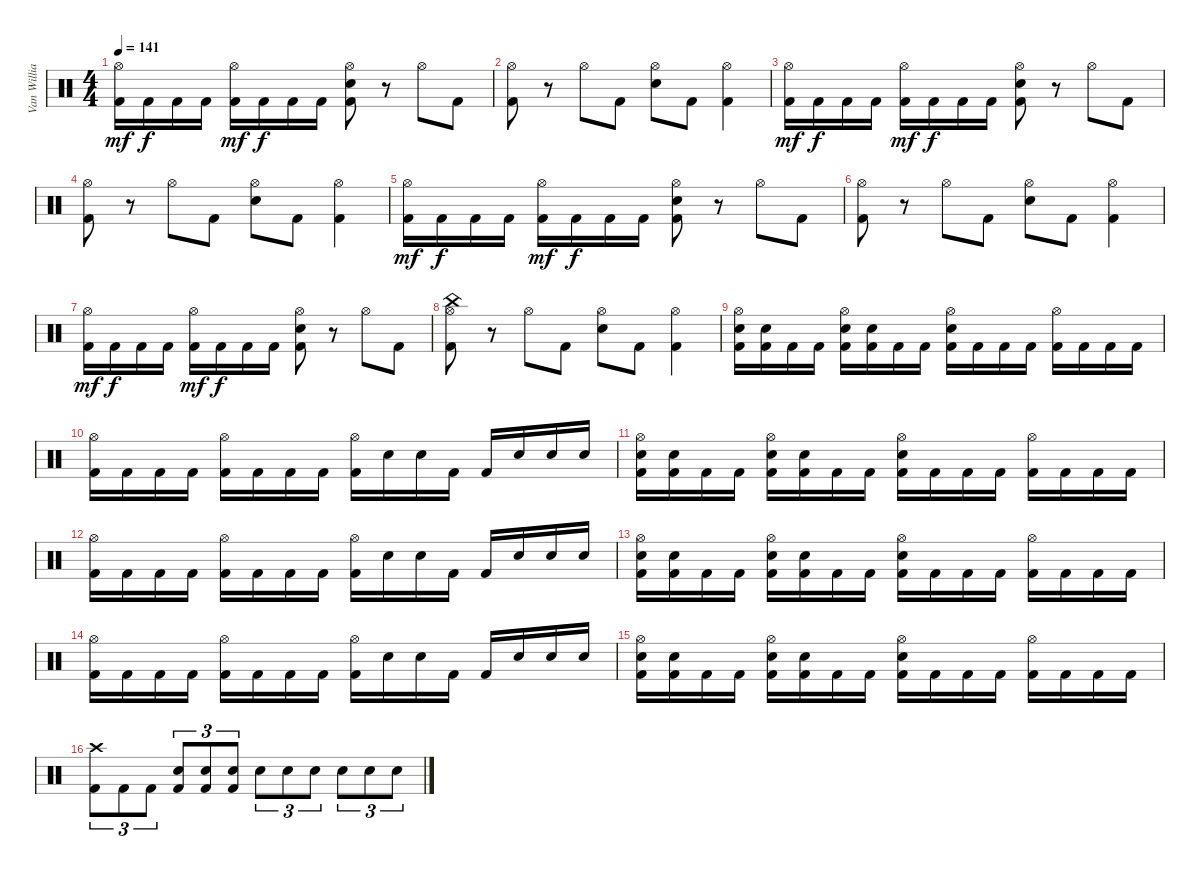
\track ("Van Williams" "Van Willia") {instrument percussion}
\staff {score}
\articulation defaults
\ts (4 4)
\tempo 141
\clef neutral
\ks c
("Hi-Hat (open)" "Kick (hit) 2").16{dy mf} "Kick (hit) 2".16{dy f} "Kick (hit) 2".16 "Kick (hit) 2".16 ("Hi-Hat (open)" "Kick (hit) 2").16{dy mf} "Kick (hit) 2".16{dy f} "Kick (hit) 2".16 "Kick (hit) 2".16 ("Hi-Hat (open)" "Electric Snare (hit)" "Kick (hit) 2").8 r.8 "Hi-Hat (open)".8 "Kick (hit) 2".8 |
("Hi-Hat (open)" "Kick (hit) 2").8 r.8 "Hi-Hat (open)".8 "Kick (hit) 2".8 ("Hi-Hat (open)" "Electric Snare (hit)").8 "Kick (hit) 2".8 ("Hi-Hat (open)" "Kick (hit) 2").4 |
("Hi-Hat (open)" "Kick (hit) 2").16{dy mf} "Kick (hit) 2".16{dy f} "Kick (hit) 2".16 "Kick (hit) 2".16 ("Hi-Hat (open)" "Kick (hit) 2").16{dy mf} "Kick (hit) 2".16{dy f} "Kick (hit) 2".16 "Kick (hit) 2".16 ("Hi-Hat (open)" "Electric Snare (hit)" "Kick (hit) 2").8 r.8 "Hi-Hat (open)".8 "Kick (hit) 2".8 |
("Hi-Hat (open)" "Kick (hit) 2").8 r.8 "Hi-Hat (open)".8 "Kick (hit) 2".8 ("Hi-Hat (open)" "Electric Snare (hit)").8 "Kick (hit) 2".8 ("Hi-Hat (open)" "Kick (hit) 2").4 |
("Hi-Hat (open)" "Kick (hit) 2").16{dy mf} "Kick (hit) 2".16{dy f} "Kick (hit) 2".16 "Kick (hit) 2".16 ("Hi-Hat (open)" "Kick (hit) 2").16{dy mf} "Kick (hit) 2".16{dy f} "Kick (hit) 2".16 "Kick (hit) 2".16 ("Hi-Hat (open)" "Electric Snare (hit)" "Kick (hit) 2").8 r.8 "Hi-Hat (open)".8 "Kick (hit) 2".8 |
("Hi-Hat (open)" "Kick (hit) 2").8 r.8 "Hi-Hat (open)".8 "Kick (hit) 2".8 ("Hi-Hat (open)" "Electric Snare (hit)").8 "Kick (hit) 2".8 ("Hi-Hat (open)" "Kick (hit) 2").4 |
("Hi-Hat (open)" "Kick (hit) 2").16{dy mf} "Kick (hit) 2".16{dy f} "Kick (hit) 2".16 "Kick (hit) 2".16 ("Hi-Hat (open)" "Kick (hit) 2").16{dy mf} "Kick (hit) 2".16{dy f} "Kick (hit) 2".16 "Kick (hit) 2".16 ("Hi-Hat (open)" "Electric Snare (hit)" "Kick (hit) 2").8 r.8 "Hi-Hat (open)".8 "Kick (hit) 2".8 |
("Hi-Hat (open)" "China (hit)" "Kick (hit) 2").8 r.8 "Hi-Hat (open)".8 "Kick (hit) 2".8 ("Hi-Hat (open)" "Electric Snare (hit)").8 "Kick (hit) 2".8 ("Hi-Hat (open)" "Kick (hit) 2").4 |
("Hi-Hat (open)" "Electric Snare (hit)" "Kick (hit) 2").16 ("Electric Snare (hit)" "Kick (hit) 2").16 "Kick (hit) 2".16 "Kick (hit) 2".16 ("Hi-Hat (open)" "Electric Snare (hit)" "Kick (hit) 2").16 ("Electric Snare (hit)" "Kick (hit) 2").16 "Kick (hit) 2".16 "Kick (hit) 2".16 ("Hi-Hat (open)" "Electric Snare (hit)" "Kick (hit) 2").16 "Kick (hit) 2".16 "Kick (hit) 2".16 "Kick (hit) 2".16 ("Hi-Hat (open)" "Kick (hit) 2").16 "Kick (hit) 2".16 "Kick (hit) 2".16 "Kick (hit) 2".16 |
("Hi-Hat (open)" "Kick (hit) 2").16 "Kick (hit) 2".16 "Kick (hit) 2".16 "Kick (hit) 2".16 ("Hi-Hat (open)" "Kick (hit) 2").16 "Kick (hit) 2".16 "Kick (hit) 2".16 "Kick (hit) 2".16 ("Hi-Hat (open)" "Kick (hit) 2").16 "Electric Snare (hit)".16 "Electric Snare (hit)".16 "Kick (hit) 2".16 "Kick (hit) 2".16 "Electric Snare (hit)".16 "Electric Snare (hit)".16 "Electric Snare (hit)".16 |
("Hi-Hat (open)" "Electric Snare (hit)" "Kick (hit) 2").16 ("Electric Snare (hit)" "Kick (hit) 2").16 "Kick (hit) 2".16 "Kick (hit) 2".16 ("Hi-Hat (open)" "Electric Snare (hit)" "Kick (hit) 2").16 ("Electric Snare (hit)" "Kick (hit) 2").16 "Kick (hit) 2".16 "Kick (hit) 2".16 ("Hi-Hat (open)" "Electric Snare (hit)" "Kick (hit) 2").16 "Kick (hit) 2".16 "Kick (hit) 2".16 "Kick (hit) 2".16 ("Hi-Hat (open)" "Kick (hit) 2").16 "Kick (hit) 2".16 "Kick (hit) 2".16 "Kick (hit) 2".16 |
("Hi-Hat (open)" "Kick (hit) 2").16 "Kick (hit) 2".16 "Kick (hit) 2".16 "Kick (hit) 2".16 ("Hi-Hat (open)" "Kick (hit) 2").16 "Kick (hit) 2".16 "Kick (hit) 2".16 "Kick (hit) 2".16 ("Hi-Hat (open)" "Kick (hit) 2").16 "Electric Snare (hit)".16 "Electric Snare (hit)".16 "Kick (hit) 2".16 "Kick (hit) 2".16 "Electric Snare (hit)".16 "Electric Snare (hit)".16 "Electric Snare (hit)".16 |
("Hi-Hat (open)" "Electric Snare (hit)" "Kick (hit) 2").16 ("Electric Snare (hit)" "Kick (hit) 2").16 "Kick (hit) 2".16 "Kick (hit) 2".16 ("Hi-Hat (open)" "Electric Snare (hit)" "Kick (hit) 2").16 ("Electric Snare (hit)" "Kick (hit) 2").16 "Kick (hit) 2".16 "Kick (hit) 2".16 ("Hi-Hat (open)" "Electric Snare (hit)" "Kick (hit) 2").16 "Kick (hit) 2".16 "Kick (hit) 2".16 "Kick (hit) 2".16 ("Hi-Hat (open)" "Kick (hit) 2").16 "Kick (hit) 2".16 "Kick (hit) 2".16 "Kick (hit) 2".16 |
("Hi-Hat (open)" "Kick (hit) 2").16 "Kick (hit) 2".16 "Kick (hit) 2".16 "Kick (hit) 2".16 ("Hi-Hat (open)" "Kick (hit) 2").16 "Kick (hit) 2".16 "Kick (hit) 2".16 "Kick (hit) 2".16 ("Hi-Hat (open)" "Kick (hit) 2").16 "Electric Snare (hit)".16 "Electric Snare (hit)".16 "Kick (hit) 2".16 "Kick (hit) 2".16 "Electric Snare (hit)".16 "Electric Snare (hit)".16 "Electric Snare (hit)".16 |
("Hi-Hat (open)" "Electric Snare (hit)" "Kick (hit) 2").16 ("Electric Snare (hit)" "Kick (hit) 2").16 "Kick (hit) 2".16 "Kick (hit) 2".16 ("Hi-Hat (open)" "Electric Snare (hit)" "Kick (hit) 2").16 ("Electric Snare (hit)" "Kick (hit) 2").16 "Kick (hit) 2".16 "Kick (hit) 2".16 ("Hi-Hat (open)" "Electric Snare (hit)" "Kick (hit) 2").16 "Kick (hit) 2".16 "Kick (hit) 2".16 "Kick (hit) 2".16 ("Hi-Hat (open)" "Kick (hit) 2").16 "Kick (hit) 2".16 "Kick (hit) 2".16 "Kick (hit) 2".16 |
("Crash high (hit)" "Kick (hit) 2").8{tu (3 2)} "Kick (hit) 2".8{tu (3 2)} "Kick (hit) 2".8{tu (3 2)} ("Electric Snare (hit)" "Kick (hit) 2").8{tu (3 2)} ("Electric Snare (hit)" "Kick (hit) 2").8{tu (3 2)} ("Electric Snare (hit)" "Kick (hit) 2").8{tu (3 2)} "Electric Snare (hit)".8{tu (3 2)} "Electric Snare (hit)".8{tu (3 2)} "Electric Snare (hit)".8{tu (3 2)} "Electric Snare (hit)".8{tu (3 2)} "Electric Snare (hit)".8{tu (3 2)} "Electric Snare (hit)".8{tu (3 2)}
